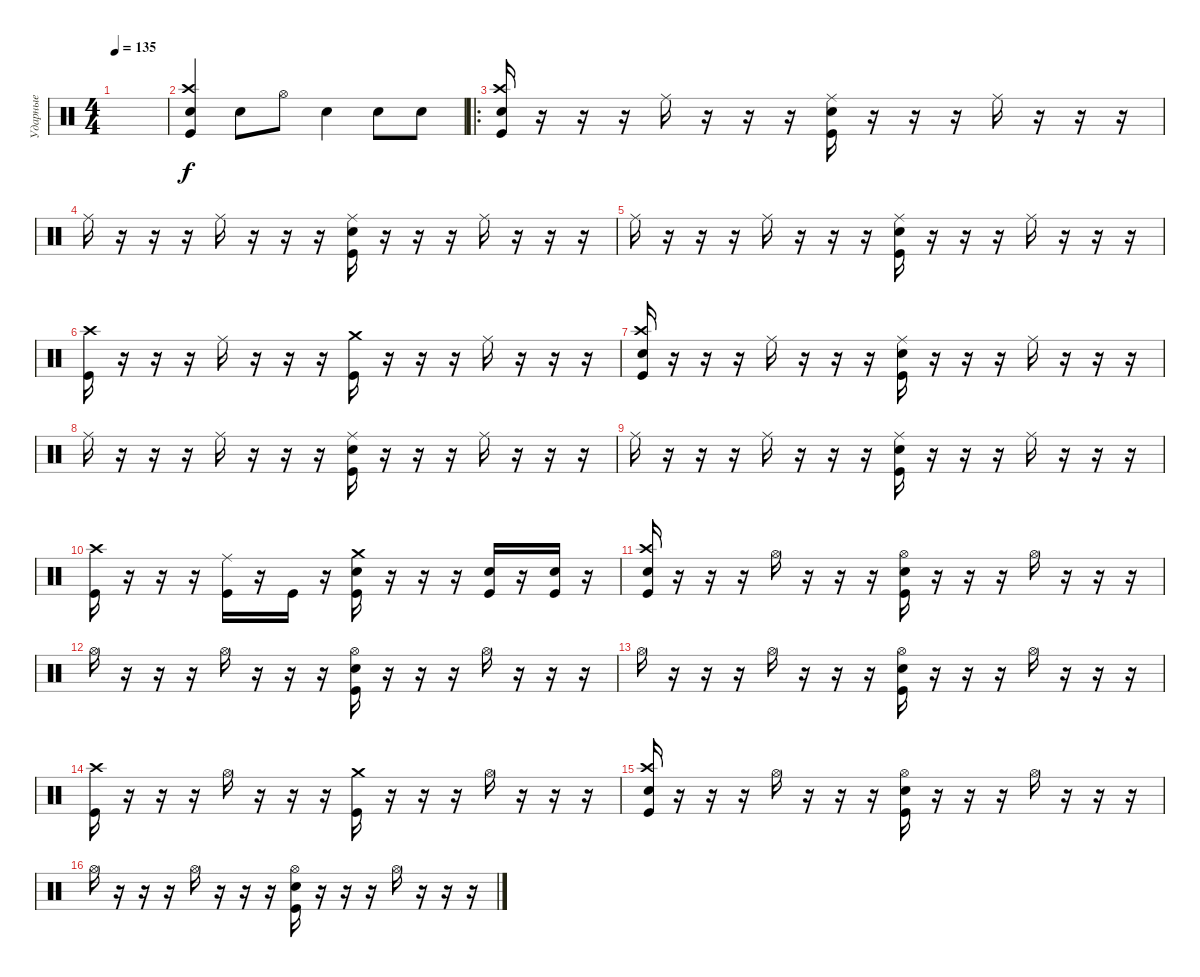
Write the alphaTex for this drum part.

\track ("Ударные" "Ударные") {instrument percussion}
\staff {score}
\articulation defaults
\ts (4 4)
\tempo 135
\clef neutral
\ks c
|
("Kick (hit)" "Crash high (hit)" "Electric Snare (hit)").4 "Electric Snare (hit)".8 "Hi-Hat (open)".8 "Electric Snare (hit)".4 "Electric Snare (hit)".8 "Electric Snare (hit)".8 |
\ro
("Kick (hit)" "Crash high (hit)" "Electric Snare (hit)").16 r.16 r.16 r.16 "Ride (middle)".16 r.16 r.16 r.16 ("Ride (middle)" "Electric Snare (hit)" "Kick (hit)").16 r.16 r.16 r.16 "Ride (middle)".16 r.16 r.16 r.16 |
"Ride (middle)".16 r.16 r.16 r.16 "Ride (middle)".16 r.16 r.16 r.16 ("Ride (middle)" "Electric Snare (hit)" "Kick (hit)").16 r.16 r.16 r.16 "Ride (middle)".16 r.16 r.16 r.16 |
"Ride (middle)".16 r.16 r.16 r.16 "Ride (middle)".16 r.16 r.16 r.16 ("Ride (middle)" "Electric Snare (hit)" "Kick (hit)").16 r.16 r.16 r.16 "Ride (middle)".16 r.16 r.16 r.16 |
("Crash high (hit)" "Kick (hit)").16 r.16 r.16 r.16 "Ride (middle)".16 r.16 r.16 r.16 ("Crash medium (hit)" "Kick (hit)").16 r.16 r.16 r.16 "Ride (middle)".16 r.16 r.16 r.16 |
("Kick (hit)" "Crash high (hit)" "Electric Snare (hit)").16 r.16 r.16 r.16 "Ride (middle)".16 r.16 r.16 r.16 ("Ride (middle)" "Electric Snare (hit)" "Kick (hit)").16 r.16 r.16 r.16 "Ride (middle)".16 r.16 r.16 r.16 |
"Ride (middle)".16 r.16 r.16 r.16 "Ride (middle)".16 r.16 r.16 r.16 ("Ride (middle)" "Electric Snare (hit)" "Kick (hit)").16 r.16 r.16 r.16 "Ride (middle)".16 r.16 r.16 r.16 |
"Ride (middle)".16 r.16 r.16 r.16 "Ride (middle)".16 r.16 r.16 r.16 ("Ride (middle)" "Electric Snare (hit)" "Kick (hit)").16 r.16 r.16 r.16 "Ride (middle)".16 r.16 r.16 r.16 |
("Crash high (hit)" "Kick (hit)").16 r.16 r.16 r.16 ("Ride (middle)" "Kick (hit)").16 r.16 "Kick (hit)".16 r.16 ("Crash medium (hit)" "Electric Snare (hit)" "Kick (hit)").16 r.16 r.16 r.16 ("Electric Snare (hit)" "Kick (hit)").16 r.16 ("Electric Snare (hit)" "Kick (hit)").16 r.16 |
("Kick (hit)" "Crash high (hit)" "Electric Snare (hit)").16 r.16 r.16 r.16 "Hi-Hat (open)".16 r.16 r.16 r.16 ("Hi-Hat (open)" "Electric Snare (hit)" "Kick (hit)").16 r.16 r.16 r.16 "Hi-Hat (open)".16 r.16 r.16 r.16 |
"Hi-Hat (open)".16 r.16 r.16 r.16 "Hi-Hat (open)".16 r.16 r.16 r.16 ("Hi-Hat (open)" "Electric Snare (hit)" "Kick (hit)").16 r.16 r.16 r.16 "Hi-Hat (open)".16 r.16 r.16 r.16 |
"Hi-Hat (open)".16 r.16 r.16 r.16 "Hi-Hat (open)".16 r.16 r.16 r.16 ("Hi-Hat (open)" "Electric Snare (hit)" "Kick (hit)").16 r.16 r.16 r.16 "Hi-Hat (open)".16 r.16 r.16 r.16 |
("Crash high (hit)" "Kick (hit)").16 r.16 r.16 r.16 "Hi-Hat (open)".16 r.16 r.16 r.16 ("Crash medium (hit)" "Kick (hit)").16 r.16 r.16 r.16 "Hi-Hat (open)".16 r.16 r.16 r.16 |
("Kick (hit)" "Crash high (hit)" "Electric Snare (hit)").16 r.16 r.16 r.16 "Hi-Hat (open)".16 r.16 r.16 r.16 ("Hi-Hat (open)" "Electric Snare (hit)" "Kick (hit)").16 r.16 r.16 r.16 "Hi-Hat (open)".16 r.16 r.16 r.16 |
"Hi-Hat (open)".16 r.16 r.16 r.16 "Hi-Hat (open)".16 r.16 r.16 r.16 ("Hi-Hat (open)" "Electric Snare (hit)" "Kick (hit)").16 r.16 r.16 r.16 "Hi-Hat (open)".16 r.16 r.16 r.16
